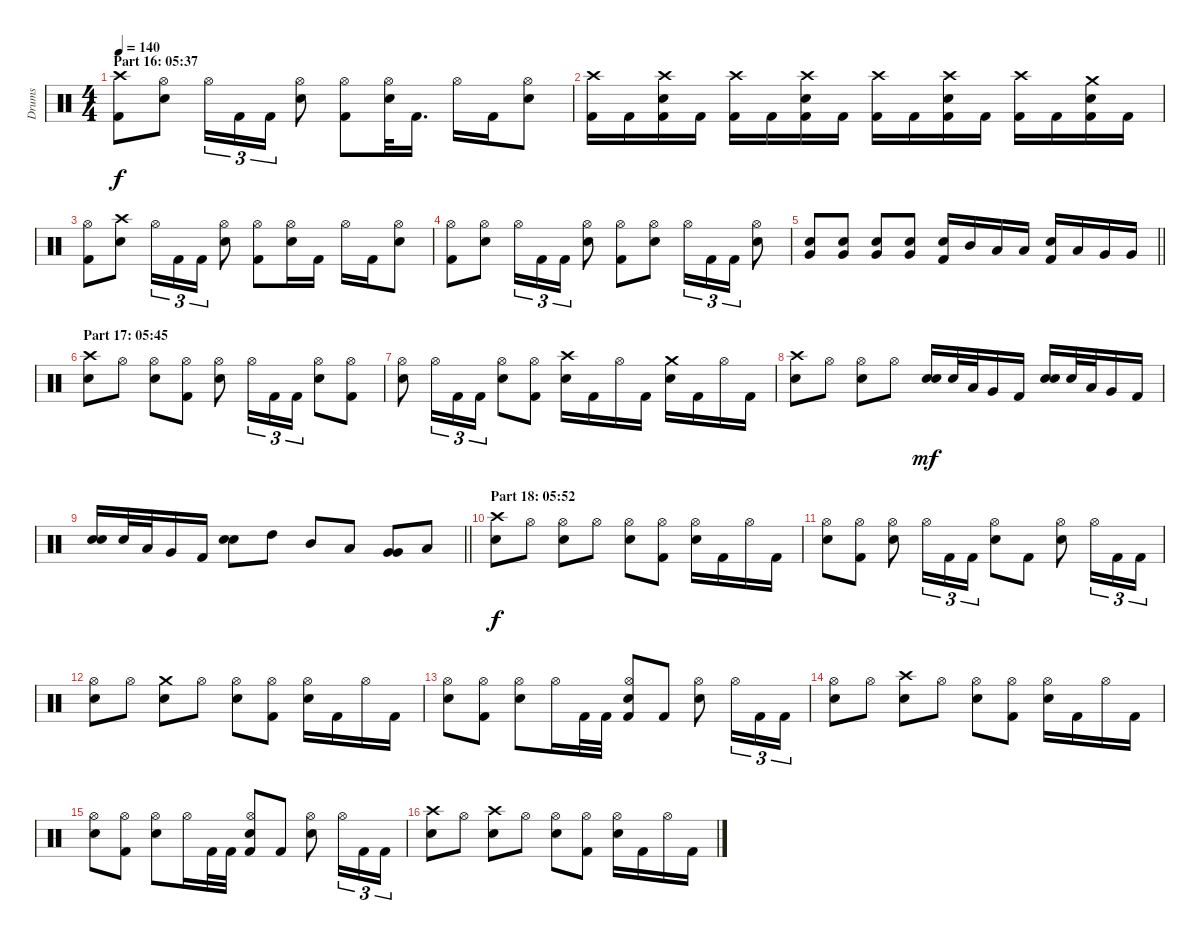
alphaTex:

\track ("Drums" "Drums") {instrument percussion}
\staff {score}
\articulation defaults
\ts (4 4)
\section ("" "Part 16: 05:37")
\tempo 140
\clef neutral
\ks c
("Crash high (hit)" "Kick (hit) 2").8{dy f} ("Hi-Hat (open)" "Electric Snare (hit)").8 "Hi-Hat (open)".16{tu (3 2)} "Kick (hit) 2".16{tu (3 2)} "Kick (hit) 2".16{tu (3 2)} ("Hi-Hat (open)" "Electric Snare (hit)").8 ("Hi-Hat (open)" "Kick (hit) 2").8 ("Hi-Hat (open)" "Electric Snare (hit)").32 "Kick (hit) 2".16{d} "Hi-Hat (open)".16 "Kick (hit) 2".16 ("Hi-Hat (open)" "Electric Snare (hit)").8 |
("Crash high (hit)" "Kick (hit) 2").16 "Kick (hit) 2".16 ("Crash high (hit)" "Electric Snare (hit)" "Kick (hit) 2").16 "Kick (hit) 2".16 ("Crash high (hit)" "Kick (hit) 2").16 "Kick (hit) 2".16 ("Crash high (hit)" "Electric Snare (hit)" "Kick (hit) 2").16 "Kick (hit) 2".16 ("Crash high (hit)" "Kick (hit) 2").16 "Kick (hit) 2".16 ("Crash high (hit)" "Electric Snare (hit)" "Kick (hit) 2").16 "Kick (hit) 2".16 ("Crash high (hit)" "Kick (hit) 2").16 "Kick (hit) 2".16 ("Crash medium (hit)" "Electric Snare (hit)" "Kick (hit) 2").16 "Kick (hit) 2".16 |
("Hi-Hat (open)" "Kick (hit) 2").8 ("Crash high (hit)" "Electric Snare (hit)").8 "Hi-Hat (open)".16{tu (3 2)} "Kick (hit) 2".16{tu (3 2)} "Kick (hit) 2".16{tu (3 2)} ("Hi-Hat (open)" "Electric Snare (hit)").8 ("Hi-Hat (open)" "Kick (hit) 2").8 ("Hi-Hat (open)" "Electric Snare (hit)").16 "Kick (hit) 2".16 "Hi-Hat (open)".16 "Kick (hit) 2".16 ("Hi-Hat (open)" "Electric Snare (hit)").8 |
("Hi-Hat (open)" "Kick (hit) 2").8 ("Hi-Hat (open)" "Electric Snare (hit)").8 "Hi-Hat (open)".16{tu (3 2)} "Kick (hit) 2".16{tu (3 2)} "Kick (hit) 2".16{tu (3 2)} ("Hi-Hat (open)" "Electric Snare (hit)").8 ("Hi-Hat (open)" "Kick (hit) 2").8 ("Hi-Hat (open)" "Electric Snare (hit)").8 "Hi-Hat (open)".16{tu (3 2)} "Kick (hit) 2".16{tu (3 2)} "Kick (hit) 2".16{tu (3 2)} ("Hi-Hat (open)" "Electric Snare (hit)").8 |
\barLineRight lightlight
("Electric Snare (hit)" "Very Low Tom (hit)").8 ("Electric Snare (hit)" "Very Low Tom (hit)").8 ("Electric Snare (hit)" "Very Low Tom (hit)").8 ("Electric Snare (hit)" "Very Low Tom (hit)").8 ("Electric Snare (hit)" "Kick (hit) 2").16 "Mid Tom (hit)".16 "Low Tom (hit)".16 "Low Tom (hit)".16 ("Electric Snare (hit)" "Kick (hit) 2").16 "Low Tom (hit)".16 "Very Low Tom (hit)".16 "Very Low Tom (hit)".16 |
\section ("" "Part 17: 05:45")
("Crash high (hit)" "Electric Snare (hit)").8 "Hi-Hat (open)".8 ("Hi-Hat (open)" "Electric Snare (hit)").8 ("Hi-Hat (open)" "Kick (hit) 2").8 ("Hi-Hat (open)" "Electric Snare (hit)").8 "Hi-Hat (open)".16{tu (3 2)} "Kick (hit) 2".16{tu (3 2)} "Kick (hit) 2".16{tu (3 2)} ("Hi-Hat (open)" "Electric Snare (hit)").8 ("Hi-Hat (open)" "Kick (hit) 2").8 |
("Hi-Hat (open)" "Electric Snare (hit)").8 "Hi-Hat (open)".16{tu (3 2)} "Kick (hit) 2".16{tu (3 2)} "Kick (hit) 2".16{tu (3 2)} ("Hi-Hat (open)" "Electric Snare (hit)").8 ("Hi-Hat (open)" "Kick (hit) 2").8 ("Crash high (hit)" "Electric Snare (hit)").16 "Kick (hit) 2".16 "Hi-Hat (open)".16 "Kick (hit) 2".16 ("Crash medium (hit)" "Electric Snare (hit)").16 "Kick (hit) 2".16 "Hi-Hat (open)".16 "Kick (hit) 2".16 |
("Crash high (hit)" "Electric Snare (hit)").8 "Hi-Hat (open)".8 ("Hi-Hat (open)" "Electric Snare (hit)").8 "Hi-Hat (open)".8 ("Electric Snare (hit)" "Electric Snare (hit)").16{bd 120 dy mf} "Electric Snare (hit)".32 "Low Tom (hit)".32 "Very Low Tom (hit)".16 "Kick (hit) 2".16 ("Electric Snare (hit)" "Electric Snare (hit)").16{bd 120} "Electric Snare (hit)".32 "Low Tom (hit)".32 "Very Low Tom (hit)".16 "Kick (hit) 2".16 |
\barLineRight lightlight
("Electric Snare (hit)" "Electric Snare (hit)").16{bd 120} "Electric Snare (hit)".32 "Low Tom (hit)".32 "Very Low Tom (hit)".16 "Kick (hit) 2".16 ("Electric Snare (hit)" "Electric Snare (hit)").8{bd 120} "High Tom (hit)".8 "Mid Tom (hit)".8 "Low Tom (hit)".8 ("Very Low Tom (hit)" "Very Low Tom (hit)").8{bd 120} "Low Floor Tom (hit)".8 |
\section ("" "Part 18: 05:52")
("Crash high (hit)" "Electric Snare (hit)").8{dy f} "Hi-Hat (open)".8 ("Hi-Hat (open)" "Electric Snare (hit)").8 "Hi-Hat (open)".8 ("Hi-Hat (open)" "Electric Snare (hit)").8 ("Hi-Hat (open)" "Kick (hit) 2").8 ("Hi-Hat (open)" "Electric Snare (hit)").16 "Kick (hit) 2".16 "Hi-Hat (open)".16 "Kick (hit) 2".16 |
("Hi-Hat (open)" "Electric Snare (hit)").8 ("Hi-Hat (open)" "Kick (hit) 2").8 ("Hi-Hat (open)" "Electric Snare (hit)").8 "Hi-Hat (open)".16{tu (3 2)} "Kick (hit) 2".16{tu (3 2)} "Kick (hit) 2".16{tu (3 2)} ("Hi-Hat (open)" "Electric Snare (hit)").8 "Kick (hit) 2".8 ("Hi-Hat (open)" "Electric Snare (hit)").8 "Hi-Hat (open)".16{tu (3 2)} "Kick (hit) 2".16{tu (3 2)} "Kick (hit) 2".16{tu (3 2)} |
("Hi-Hat (open)" "Electric Snare (hit)").8 "Hi-Hat (open)".8 ("Crash medium (hit)" "Electric Snare (hit)").8 "Hi-Hat (open)".8 ("Hi-Hat (open)" "Electric Snare (hit)").8 ("Hi-Hat (open)" "Kick (hit) 2").8 ("Hi-Hat (open)" "Electric Snare (hit)").16 "Kick (hit) 2".16 "Hi-Hat (open)".16 "Kick (hit) 2".16 |
("Hi-Hat (open)" "Electric Snare (hit)").8 ("Hi-Hat (open)" "Kick (hit) 2").8 ("Hi-Hat (open)" "Electric Snare (hit)").8 "Hi-Hat (open)".16 "Kick (hit) 2".32 "Kick (hit) 2".32 ("Hi-Hat (open)" "Electric Snare (hit)" "Kick (hit) 2").8 "Kick (hit) 2".8 ("Hi-Hat (open)" "Electric Snare (hit)").8 "Hi-Hat (open)".16{tu (3 2)} "Kick (hit) 2".16{tu (3 2)} "Kick (hit) 2".16{tu (3 2)} |
("Hi-Hat (open)" "Electric Snare (hit)").8 "Hi-Hat (open)".8 ("Crash high (hit)" "Electric Snare (hit)").8 "Hi-Hat (open)".8 ("Hi-Hat (open)" "Electric Snare (hit)").8 ("Hi-Hat (open)" "Kick (hit) 2").8 ("Hi-Hat (open)" "Electric Snare (hit)").16 "Kick (hit) 2".16 "Hi-Hat (open)".16 "Kick (hit) 2".16 |
("Hi-Hat (open)" "Electric Snare (hit)").8 ("Hi-Hat (open)" "Kick (hit) 2").8 ("Hi-Hat (open)" "Electric Snare (hit)").8 "Hi-Hat (open)".16 "Kick (hit) 2".32 "Kick (hit) 2".32 ("Hi-Hat (open)" "Electric Snare (hit)" "Kick (hit) 2").8 "Kick (hit) 2".8 ("Hi-Hat (open)" "Electric Snare (hit)").8 "Hi-Hat (open)".16{tu (3 2)} "Kick (hit) 2".16{tu (3 2)} "Kick (hit) 2".16{tu (3 2)} |
("Crash high (hit)" "Electric Snare (hit)").8 "Hi-Hat (open)".8 ("Crash high (hit)" "Electric Snare (hit)").8 "Hi-Hat (open)".8 ("Hi-Hat (open)" "Electric Snare (hit)").8 ("Hi-Hat (open)" "Kick (hit) 2").8 ("Hi-Hat (open)" "Electric Snare (hit)").16 "Kick (hit) 2".16 "Hi-Hat (open)".16 "Kick (hit) 2".16
